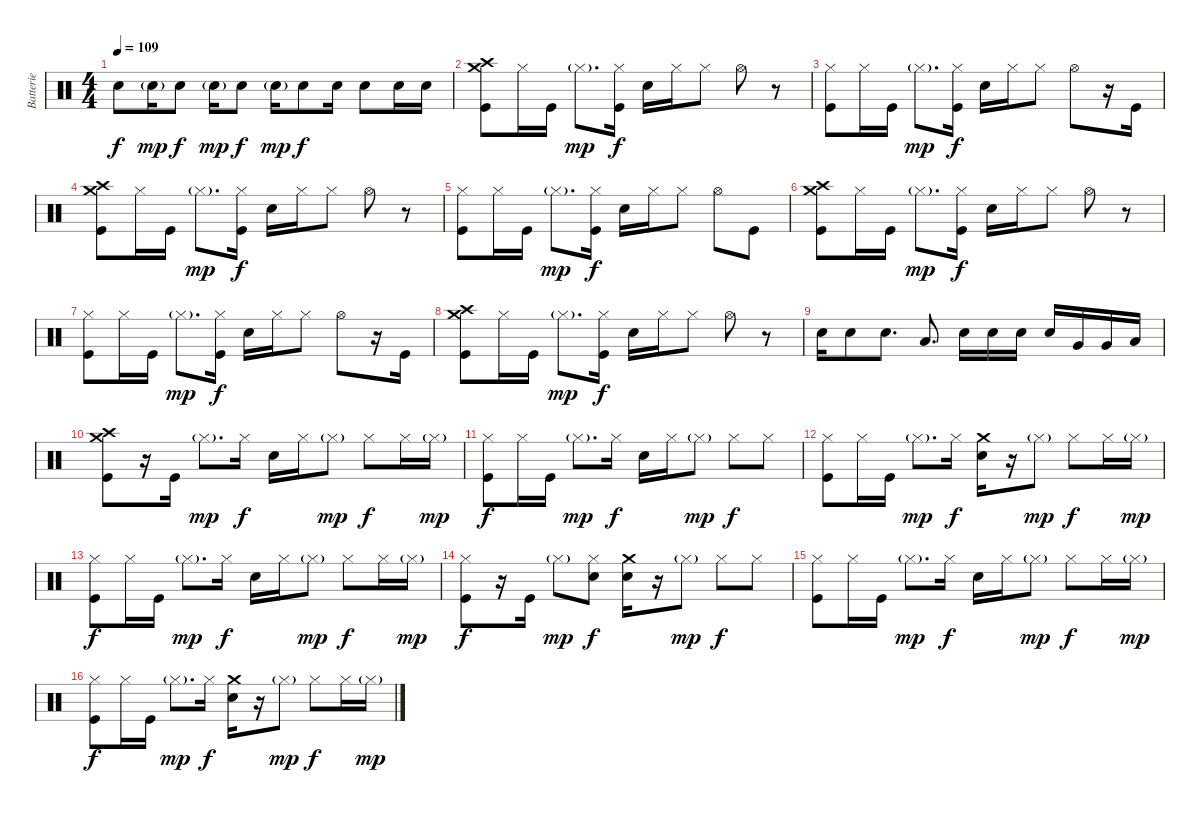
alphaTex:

\track ("Batterie" "Batterie") {instrument percussion}
\staff {score}
\articulation defaults
\ts (4 4)
\tempo 109
\clef neutral
\ks c "Electric Snare (hit)".8{dy f} "Electric Snare (hit)"{g}.16{dy mp} "Electric Snare (hit)".8{dy f} "Electric Snare (hit)"{g}.16{dy mp} "Electric Snare (hit)".8{dy f} "Electric Snare (hit)"{g}.16{dy mp} "Electric Snare (hit)".8{dy f} "Electric Snare (hit)".16 "Electric Snare (hit)".8 "Electric Snare (hit)".16 "Electric Snare (hit)".16
|
("Crash high (hit)" "Crash medium (hit)" "Kick (hit)").8 "Hi-Hat (closed)".16 "Kick (hit)".16 "Hi-Hat (closed)"{g}.8{d dy mp} ("Hi-Hat (closed)" "Kick (hit)").16{dy f} "Electric Snare (hit)".16 "Hi-Hat (closed)".16 "Hi-Hat (closed)".8 "Hi-Hat (open)".8 r.8 |
("Hi-Hat (closed)" "Kick (hit)").8 "Hi-Hat (closed)".16 "Kick (hit)".16 "Hi-Hat (closed)"{g}.8{d dy mp} ("Hi-Hat (closed)" "Kick (hit)").16{dy f} "Electric Snare (hit)".16 "Hi-Hat (closed)".16 "Hi-Hat (closed)".8 "Hi-Hat (open)".8 r.16 "Kick (hit)".16 |
("Crash high (hit)" "Crash medium (hit)" "Kick (hit)").8 "Hi-Hat (closed)".16 "Kick (hit)".16 "Hi-Hat (closed)"{g}.8{d dy mp} ("Hi-Hat (closed)" "Kick (hit)").16{dy f} "Electric Snare (hit)".16 "Hi-Hat (closed)".16 "Hi-Hat (closed)".8 "Hi-Hat (open)".8 r.8 |
("Hi-Hat (closed)" "Kick (hit)").8 "Hi-Hat (closed)".16 "Kick (hit)".16 "Hi-Hat (closed)"{g}.8{d dy mp} ("Hi-Hat (closed)" "Kick (hit)").16{dy f} "Electric Snare (hit)".16 "Hi-Hat (closed)".16 "Hi-Hat (closed)".8 "Hi-Hat (open)".8 "Kick (hit)".8 |
("Crash high (hit)" "Crash medium (hit)" "Kick (hit)").8 "Hi-Hat (closed)".16 "Kick (hit)".16 "Hi-Hat (closed)"{g}.8{d dy mp} ("Hi-Hat (closed)" "Kick (hit)").16{dy f} "Electric Snare (hit)".16 "Hi-Hat (closed)".16 "Hi-Hat (closed)".8 "Hi-Hat (open)".8 r.8 |
("Hi-Hat (closed)" "Kick (hit)").8 "Hi-Hat (closed)".16 "Kick (hit)".16 "Hi-Hat (closed)"{g}.8{d dy mp} ("Hi-Hat (closed)" "Kick (hit)").16{dy f} "Electric Snare (hit)".16 "Hi-Hat (closed)".16 "Hi-Hat (closed)".8 "Hi-Hat (open)".8 r.16 "Kick (hit)".16 |
("Crash high (hit)" "Crash medium (hit)" "Kick (hit)").8 "Hi-Hat (closed)".16 "Kick (hit)".16 "Hi-Hat (closed)"{g}.8{d dy mp} ("Hi-Hat (closed)" "Kick (hit)").16{dy f} "Electric Snare (hit)".16 "Hi-Hat (closed)".16 "Hi-Hat (closed)".8 "Hi-Hat (open)".8 r.8 |
"Electric Snare (hit)".16 "Electric Snare (hit)".8 "Electric Snare (hit)".8{d} "Low Tom (hit)".8{d} "Electric Snare (hit)".16 "Electric Snare (hit)".16 "Electric Snare (hit)".16 "Electric Snare (hit)".16 "Very Low Tom (hit)".16 "Very Low Tom (hit)".16 "Low Floor Tom (hit)".16 |
("Crash high (hit)" "Crash medium (hit)" "Kick (hit)").8 r.16 "Kick (hit)".16 "Hi-Hat (closed)"{g}.8{d dy mp} "Hi-Hat (closed)".16{dy f} "Electric Snare (hit)".16 "Hi-Hat (closed)".16 "Hi-Hat (closed)"{g}.8{dy mp} "Hi-Hat (closed)".8{dy f} "Hi-Hat (closed)".16 "Hi-Hat (closed)"{g}.16{dy mp} |
("Hi-Hat (closed)" "Kick (hit)").8{dy f} "Hi-Hat (closed)".16 "Kick (hit)".16 "Hi-Hat (closed)"{g}.8{d dy mp} "Hi-Hat (closed)".16{dy f} "Electric Snare (hit)".16 "Hi-Hat (closed)".16 "Hi-Hat (closed)"{g}.8{dy mp} "Hi-Hat (closed)".8{dy f} "Hi-Hat (closed)".8 |
("Hi-Hat (closed)" "Kick (hit)").8 "Hi-Hat (closed)".16 "Kick (hit)".16 "Hi-Hat (closed)"{g}.8{d dy mp} "Hi-Hat (closed)".16{dy f} ("Crash medium (hit)" "Electric Snare (hit)").16 r.16 "Hi-Hat (closed)"{g}.8{dy mp} "Hi-Hat (closed)".8{dy f} "Hi-Hat (closed)".16 "Hi-Hat (closed)"{g}.16{dy mp} |
("Hi-Hat (closed)" "Kick (hit)").8{dy f} "Hi-Hat (closed)".16 "Kick (hit)".16 "Hi-Hat (closed)"{g}.8{d dy mp} "Hi-Hat (closed)".16{dy f} "Electric Snare (hit)".16 "Hi-Hat (closed)".16 "Hi-Hat (closed)"{g}.8{dy mp} "Hi-Hat (closed)".8{dy f} "Hi-Hat (closed)".16 "Hi-Hat (closed)"{g}.16{dy mp} |
("Hi-Hat (closed)" "Kick (hit)").8{dy f} r.16 "Kick (hit)".16 "Hi-Hat (closed)"{g}.8{dy mp} ("Hi-Hat (closed)" "Electric Snare (hit)").8{dy f} ("Crash medium (hit)" "Electric Snare (hit)").16 r.16 "Hi-Hat (closed)"{g}.8{dy mp} "Hi-Hat (closed)".8{dy f} "Hi-Hat (closed)".8 |
("Hi-Hat (closed)" "Kick (hit)").8 "Hi-Hat (closed)".16 "Kick (hit)".16 "Hi-Hat (closed)"{g}.8{d dy mp} "Hi-Hat (closed)".16{dy f} "Electric Snare (hit)".16 "Hi-Hat (closed)".16 "Hi-Hat (closed)"{g}.8{dy mp} "Hi-Hat (closed)".8{dy f} "Hi-Hat (closed)".16 "Hi-Hat (closed)"{g}.16{dy mp} |
("Hi-Hat (closed)" "Kick (hit)").8{dy f} "Hi-Hat (closed)".16 "Kick (hit)".16 "Hi-Hat (closed)"{g}.8{d dy mp} "Hi-Hat (closed)".16{dy f} ("Crash medium (hit)" "Electric Snare (hit)").16 r.16 "Hi-Hat (closed)"{g}.8{dy mp} "Hi-Hat (closed)".8{dy f} "Hi-Hat (closed)".16 "Hi-Hat (closed)"{g}.16{dy mp}
